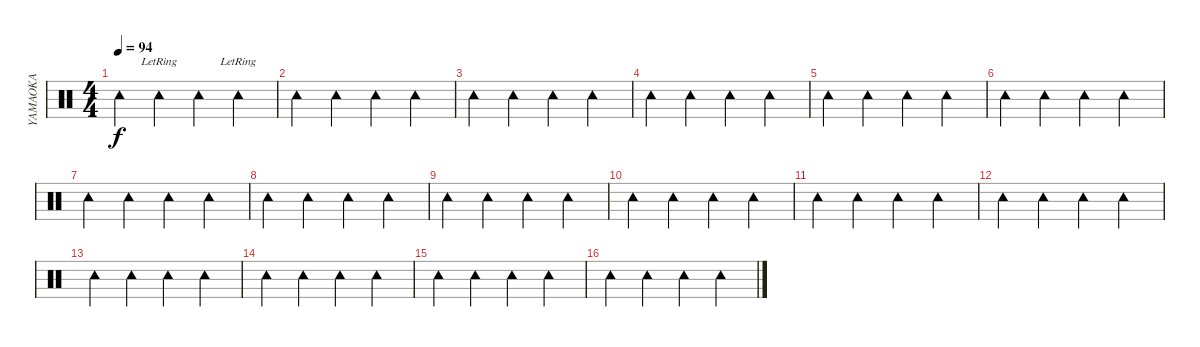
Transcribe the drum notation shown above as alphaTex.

\track ("YAMAOKA" "YAMAOKA") {instrument percussion}
\staff {score}
\articulation defaults
\ts (4 4)
\tempo 94
\clef neutral
\ks c "Tambourine (hit)"{x}.4{dy f} "Tambourine (hit)"{lr}.4 "Tambourine (hit)"{x}.4 "Tambourine (hit)"{lr}.4
|
"Tambourine (hit)"{x}.4 "Tambourine (hit)".4 "Tambourine (hit)"{x}.4 "Tambourine (hit)".4 |
"Tambourine (hit)"{x}.4 "Tambourine (hit)".4 "Tambourine (hit)"{x}.4 "Tambourine (hit)".4 |
"Tambourine (hit)"{x}.4 "Tambourine (hit)".4 "Tambourine (hit)"{x}.4 "Tambourine (hit)".4 |
"Tambourine (hit)"{x}.4 "Tambourine (hit)".4 "Tambourine (hit)"{x}.4 "Tambourine (hit)".4 |
"Tambourine (hit)"{x}.4 "Tambourine (hit)".4 "Tambourine (hit)"{x}.4 "Tambourine (hit)".4 |
"Tambourine (hit)"{x}.4 "Tambourine (hit)".4 "Tambourine (hit)"{x}.4 "Tambourine (hit)".4 |
"Tambourine (hit)"{x}.4 "Tambourine (hit)".4 "Tambourine (hit)"{x}.4 "Tambourine (hit)".4 |
"Tambourine (hit)"{x}.4 "Tambourine (hit)".4 "Tambourine (hit)"{x}.4 "Tambourine (hit)".4 |
"Tambourine (hit)"{x}.4 "Tambourine (hit)".4 "Tambourine (hit)"{x}.4 "Tambourine (hit)".4 |
"Tambourine (hit)"{x}.4 "Tambourine (hit)".4 "Tambourine (hit)"{x}.4 "Tambourine (hit)".4 |
"Tambourine (hit)"{x}.4 "Tambourine (hit)".4 "Tambourine (hit)"{x}.4 "Tambourine (hit)".4 |
"Tambourine (hit)"{x}.4 "Tambourine (hit)".4 "Tambourine (hit)"{x}.4 "Tambourine (hit)".4 |
"Tambourine (hit)"{x}.4 "Tambourine (hit)".4 "Tambourine (hit)"{x}.4 "Tambourine (hit)".4 |
"Tambourine (hit)"{x}.4 "Tambourine (hit)".4 "Tambourine (hit)"{x}.4 "Tambourine (hit)".4 |
"Tambourine (hit)"{x}.4 "Tambourine (hit)".4 "Tambourine (hit)"{x}.4 "Tambourine (hit)".4
